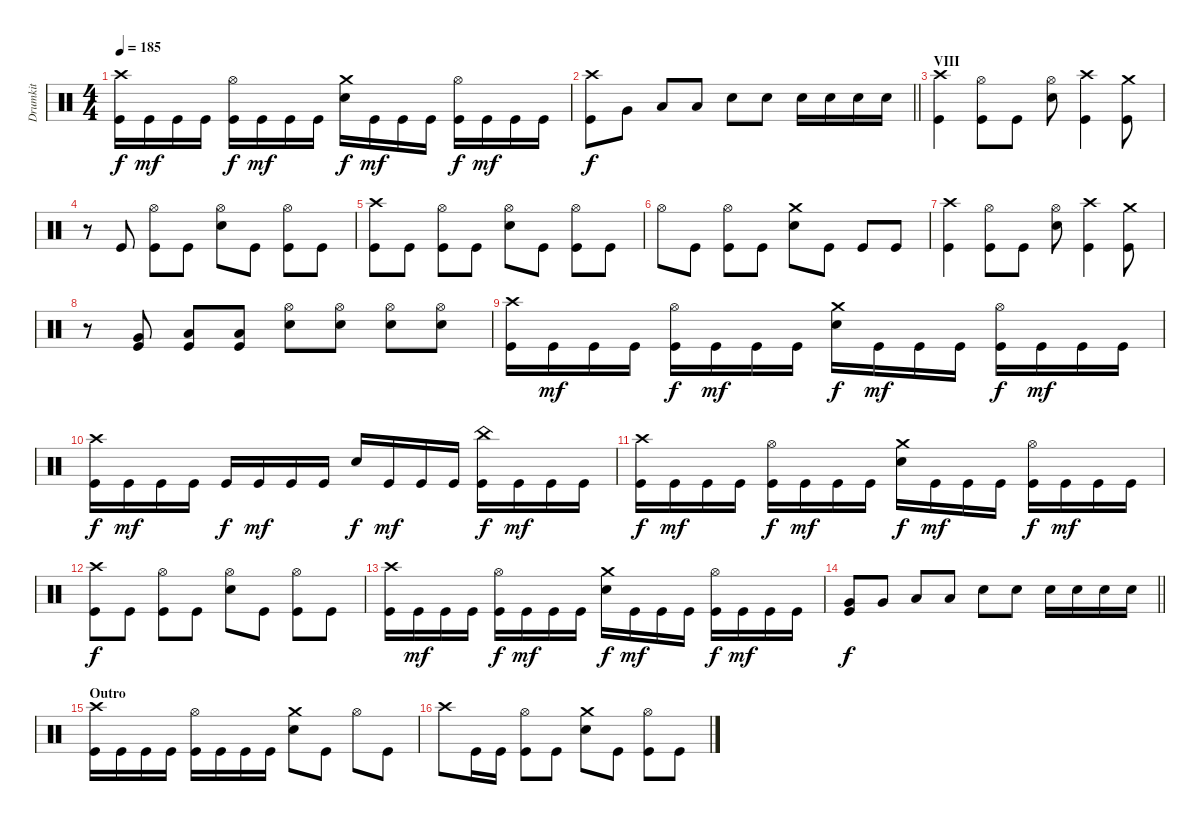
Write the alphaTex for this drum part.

\track ("Drumkit" "Drumkit") {instrument percussion}
\staff {score}
\articulation defaults
\ts (4 4)
\tempo 185
\clef neutral
\ks c
("Kick (hit)" "Crash high (hit)").16{dy f} "Kick (hit)".16{dy mf} "Kick (hit)".16 "Kick (hit)".16 ("Kick (hit)" "Hi-Hat (open)").16{dy f} "Kick (hit)".16{dy mf} "Kick (hit)".16 "Kick (hit)".16 ("Snare (hit) 2" "Crash medium (hit)").16{dy f} "Kick (hit)".16{dy mf} "Kick (hit)".16 "Kick (hit)".16 ("Kick (hit)" "Hi-Hat (open)").16{dy f} "Kick (hit)".16{dy mf} "Kick (hit)".16 "Kick (hit)".16 |
\barLineRight lightlight
("Kick (hit)" "Crash high (hit)").8{dy f} "Very Low Tom (hit)".8 "Low Floor Tom (hit)".8 "Low Floor Tom (hit)".8 "Snare (hit) 2".8 "Snare (hit) 2".8 "Snare (hit) 2".16 "Snare (hit) 2".16 "Snare (hit) 2".16 "Snare (hit) 2".16 |
\section ("" "VIII")
("Kick (hit)" "Crash high (hit)").4 ("Kick (hit)" "Hi-Hat (open)").8 "Kick (hit)".8 ("Snare (hit) 2" "Hi-Hat (open)").8 ("Kick (hit)" "Crash high (hit)").4 ("Kick (hit)" "Crash medium (hit)").8 |
r.8 "Kick (hit)".8 ("Kick (hit)" "Hi-Hat (open)").8 "Kick (hit)".8 ("Snare (hit) 2" "Hi-Hat (open)").8 "Kick (hit)".8 ("Kick (hit)" "Hi-Hat (open)").8 "Kick (hit)".8 |
("Kick (hit)" "Crash high (hit)").8 "Kick (hit)".8 ("Kick (hit)" "Hi-Hat (open)").8 "Kick (hit)".8 ("Snare (hit) 2" "Hi-Hat (open)").8 "Kick (hit)".8 ("Kick (hit)" "Hi-Hat (open)").8 "Kick (hit)".8 |
"Hi-Hat (open)".8 "Kick (hit)".8 ("Kick (hit)" "Hi-Hat (open)").8 "Kick (hit)".8 ("Snare (hit) 2" "Crash medium (hit)").8 "Kick (hit)".8 "Kick (hit)".8 "Kick (hit)".8 |
("Kick (hit)" "Crash high (hit)").4 ("Kick (hit)" "Hi-Hat (open)").8 "Kick (hit)".8 ("Snare (hit) 2" "Hi-Hat (open)").8 ("Kick (hit)" "Crash high (hit)").4 ("Kick (hit)" "Crash medium (hit)").8 |
r.8 ("Kick (hit)" "Very Low Tom (hit)").8 ("Low Floor Tom (hit)" "Kick (hit)").8 ("Low Floor Tom (hit)" "Kick (hit)").8 ("Snare (hit) 2" "Hi-Hat (open)").8 ("Snare (hit) 2" "Hi-Hat (open)").8 ("Snare (hit) 2" "Hi-Hat (open)").8 ("Snare (hit) 2" "Hi-Hat (open)").8 |
("Kick (hit)" "Crash high (hit)").16 "Kick (hit)".16{dy mf} "Kick (hit)".16 "Kick (hit)".16 ("Kick (hit)" "Hi-Hat (open)").16{dy f} "Kick (hit)".16{dy mf} "Kick (hit)".16 "Kick (hit)".16 ("Snare (hit) 2" "Crash medium (hit)").16{dy f} "Kick (hit)".16{dy mf} "Kick (hit)".16 "Kick (hit)".16 ("Kick (hit)" "Hi-Hat (open)").16{dy f} "Kick (hit)".16{dy mf} "Kick (hit)".16 "Kick (hit)".16 |
("Kick (hit)" "Crash high (hit)").16{dy f} "Kick (hit)".16{dy mf} "Kick (hit)".16 "Kick (hit)".16 "Kick (hit)".16{dy f} "Kick (hit)".16{dy mf} "Kick (hit)".16 "Kick (hit)".16 "Snare (hit) 2".16{dy f} "Kick (hit)".16{dy mf} "Kick (hit)".16 "Kick (hit)".16 ("Kick (hit)" "China (hit)").16{dy f} "Kick (hit)".16{dy mf} "Kick (hit)".16 "Kick (hit)".16 |
("Kick (hit)" "Crash high (hit)").16{dy f} "Kick (hit)".16{dy mf} "Kick (hit)".16 "Kick (hit)".16 ("Kick (hit)" "Hi-Hat (open)").16{dy f} "Kick (hit)".16{dy mf} "Kick (hit)".16 "Kick (hit)".16 ("Snare (hit) 2" "Crash medium (hit)").16{dy f} "Kick (hit)".16{dy mf} "Kick (hit)".16 "Kick (hit)".16 ("Kick (hit)" "Hi-Hat (open)").16{dy f} "Kick (hit)".16{dy mf} "Kick (hit)".16 "Kick (hit)".16 |
("Kick (hit)" "Crash high (hit)").8{dy f} "Kick (hit)".8 ("Kick (hit)" "Hi-Hat (open)").8 "Kick (hit)".8 ("Snare (hit) 2" "Hi-Hat (open)").8 "Kick (hit)".8 ("Kick (hit)" "Hi-Hat (open)").8 "Kick (hit)".8 |
("Kick (hit)" "Crash high (hit)").16 "Kick (hit)".16{dy mf} "Kick (hit)".16 "Kick (hit)".16 ("Kick (hit)" "Hi-Hat (open)").16{dy f} "Kick (hit)".16{dy mf} "Kick (hit)".16 "Kick (hit)".16 ("Snare (hit) 2" "Crash medium (hit)").16{dy f} "Kick (hit)".16{dy mf} "Kick (hit)".16 "Kick (hit)".16 ("Kick (hit)" "Hi-Hat (open)").16{dy f} "Kick (hit)".16{dy mf} "Kick (hit)".16 "Kick (hit)".16 |
\barLineRight lightlight
("Kick (hit)" "Very Low Tom (hit)").8{dy f} "Very Low Tom (hit)".8 "Low Floor Tom (hit)".8 "Low Floor Tom (hit)".8 "Snare (hit) 2".8 "Snare (hit) 2".8 "Snare (hit) 2".16 "Snare (hit) 2".16 "Snare (hit) 2".16 "Snare (hit) 2".16 |
\section ("" "Outro")
("Kick (hit)" "Crash high (hit)").16 "Kick (hit)".16 "Kick (hit)".16 "Kick (hit)".16 ("Kick (hit)" "Hi-Hat (open)").16 "Kick (hit)".16 "Kick (hit)".16 "Kick (hit)".16 ("Snare (hit) 2" "Crash medium (hit)").8 "Kick (hit)".8 "Hi-Hat (open)".8 "Kick (hit)".8 |
"Crash high (hit)".8 "Kick (hit)".16 "Kick (hit)".16 ("Kick (hit)" "Hi-Hat (open)").8 "Kick (hit)".8 ("Snare (hit) 2" "Crash medium (hit)").8 "Kick (hit)".8 ("Kick (hit)" "Hi-Hat (open)").8 "Kick (hit)".8
